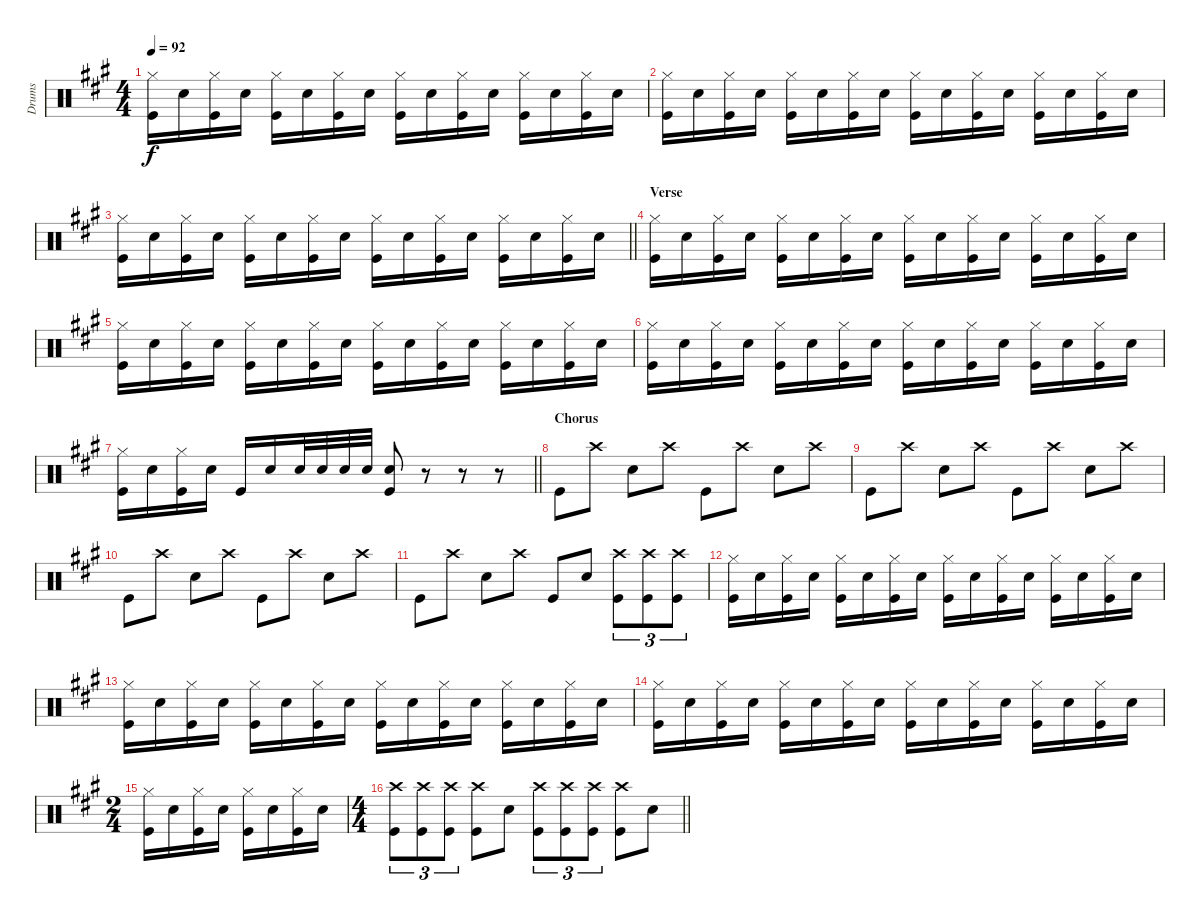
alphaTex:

\track ("Drums" "Drums") {instrument percussion}
\staff {score}
\articulation defaults
\ts (4 4)
\tempo 92
\clef neutral
\ks f#minor
("Hi-Hat (closed)" "Kick (hit)").16{dy f} "Snare (hit) 2".16 ("Hi-Hat (closed)" "Kick (hit)").16 "Snare (hit) 2".16 ("Hi-Hat (closed)" "Kick (hit)").16 "Snare (hit) 2".16 ("Hi-Hat (closed)" "Kick (hit)").16 "Snare (hit) 2".16 ("Hi-Hat (closed)" "Kick (hit)").16 "Snare (hit) 2".16 ("Hi-Hat (closed)" "Kick (hit)").16 "Snare (hit) 2".16 ("Hi-Hat (closed)" "Kick (hit)").16 "Snare (hit) 2".16 ("Hi-Hat (closed)" "Kick (hit)").16 "Snare (hit) 2".16 |
("Hi-Hat (closed)" "Kick (hit)").16 "Snare (hit) 2".16 ("Hi-Hat (closed)" "Kick (hit)").16 "Snare (hit) 2".16 ("Hi-Hat (closed)" "Kick (hit)").16 "Snare (hit) 2".16 ("Hi-Hat (closed)" "Kick (hit)").16 "Snare (hit) 2".16 ("Hi-Hat (closed)" "Kick (hit)").16 "Snare (hit) 2".16 ("Hi-Hat (closed)" "Kick (hit)").16 "Snare (hit) 2".16 ("Hi-Hat (closed)" "Kick (hit)").16 "Snare (hit) 2".16 ("Hi-Hat (closed)" "Kick (hit)").16 "Snare (hit) 2".16 |
\barLineRight lightlight
("Hi-Hat (closed)" "Kick (hit)").16 "Snare (hit) 2".16 ("Hi-Hat (closed)" "Kick (hit)").16 "Snare (hit) 2".16 ("Hi-Hat (closed)" "Kick (hit)").16 "Snare (hit) 2".16 ("Hi-Hat (closed)" "Kick (hit)").16 "Snare (hit) 2".16 ("Hi-Hat (closed)" "Kick (hit)").16 "Snare (hit) 2".16 ("Hi-Hat (closed)" "Kick (hit)").16 "Snare (hit) 2".16 ("Hi-Hat (closed)" "Kick (hit)").16 "Snare (hit) 2".16 ("Hi-Hat (closed)" "Kick (hit)").16 "Snare (hit) 2".16 |
\section ("" "Verse")
("Hi-Hat (closed)" "Kick (hit)").16 "Snare (hit) 2".16 ("Hi-Hat (closed)" "Kick (hit)").16 "Snare (hit) 2".16 ("Hi-Hat (closed)" "Kick (hit)").16 "Snare (hit) 2".16 ("Hi-Hat (closed)" "Kick (hit)").16 "Snare (hit) 2".16 ("Hi-Hat (closed)" "Kick (hit)").16 "Snare (hit) 2".16 ("Hi-Hat (closed)" "Kick (hit)").16 "Snare (hit) 2".16 ("Hi-Hat (closed)" "Kick (hit)").16 "Snare (hit) 2".16 ("Hi-Hat (closed)" "Kick (hit)").16 "Snare (hit) 2".16 |
("Hi-Hat (closed)" "Kick (hit)").16 "Snare (hit) 2".16 ("Hi-Hat (closed)" "Kick (hit)").16 "Snare (hit) 2".16 ("Hi-Hat (closed)" "Kick (hit)").16 "Snare (hit) 2".16 ("Hi-Hat (closed)" "Kick (hit)").16 "Snare (hit) 2".16 ("Hi-Hat (closed)" "Kick (hit)").16 "Snare (hit) 2".16 ("Hi-Hat (closed)" "Kick (hit)").16 "Snare (hit) 2".16 ("Hi-Hat (closed)" "Kick (hit)").16 "Snare (hit) 2".16 ("Hi-Hat (closed)" "Kick (hit)").16 "Snare (hit) 2".16 |
("Hi-Hat (closed)" "Kick (hit)").16 "Snare (hit) 2".16 ("Hi-Hat (closed)" "Kick (hit)").16 "Snare (hit) 2".16 ("Hi-Hat (closed)" "Kick (hit)").16 "Snare (hit) 2".16 ("Hi-Hat (closed)" "Kick (hit)").16 "Snare (hit) 2".16 ("Hi-Hat (closed)" "Kick (hit)").16 "Snare (hit) 2".16 ("Hi-Hat (closed)" "Kick (hit)").16 "Snare (hit) 2".16 ("Hi-Hat (closed)" "Kick (hit)").16 "Snare (hit) 2".16 ("Hi-Hat (closed)" "Kick (hit)").16 "Snare (hit) 2".16 |
\barLineRight lightlight
("Hi-Hat (closed)" "Kick (hit)").16 "Snare (hit) 2".16 ("Hi-Hat (closed)" "Kick (hit)").16 "Snare (hit) 2".16 "Kick (hit)".16 "Snare (hit) 2".16 "Snare (hit) 2".32 "Snare (hit) 2".32 "Snare (hit) 2".32 "Snare (hit) 2".32 ("Snare (hit) 2" "Kick (hit)").8 r.8 r.8 r.8 |
\section ("" "Chorus")
"Kick (hit)".8 "Crash high (hit)".8 "Snare (hit) 2".8 "Crash high (hit)".8 "Kick (hit)".8 "Crash high (hit)".8 "Snare (hit) 2".8 "Crash high (hit)".8 |
"Kick (hit)".8 "Crash high (hit)".8 "Snare (hit) 2".8 "Crash high (hit)".8 "Kick (hit)".8 "Crash high (hit)".8 "Snare (hit) 2".8 "Crash high (hit)".8 |
"Kick (hit)".8 "Crash high (hit)".8 "Snare (hit) 2".8 "Crash high (hit)".8 "Kick (hit)".8 "Crash high (hit)".8 "Snare (hit) 2".8 "Crash high (hit)".8 |
"Kick (hit)".8 "Crash high (hit)".8 "Snare (hit) 2".8 "Crash high (hit)".8 "Kick (hit)".8 "Snare (hit) 2".8 ("Crash high (hit)" "Kick (hit)").8{tu (3 2)} ("Crash high (hit)" "Kick (hit)").8{tu (3 2)} ("Crash high (hit)" "Kick (hit)").8{tu (3 2)} |
("Hi-Hat (closed)" "Kick (hit)").16 "Snare (hit) 2".16 ("Hi-Hat (closed)" "Kick (hit)").16 "Snare (hit) 2".16 ("Hi-Hat (closed)" "Kick (hit)").16 "Snare (hit) 2".16 ("Hi-Hat (closed)" "Kick (hit)").16 "Snare (hit) 2".16 ("Hi-Hat (closed)" "Kick (hit)").16 "Snare (hit) 2".16 ("Hi-Hat (closed)" "Kick (hit)").16 "Snare (hit) 2".16 ("Hi-Hat (closed)" "Kick (hit)").16 "Snare (hit) 2".16 ("Hi-Hat (closed)" "Kick (hit)").16 "Snare (hit) 2".16 |
("Hi-Hat (closed)" "Kick (hit)").16 "Snare (hit) 2".16 ("Hi-Hat (closed)" "Kick (hit)").16 "Snare (hit) 2".16 ("Hi-Hat (closed)" "Kick (hit)").16 "Snare (hit) 2".16 ("Hi-Hat (closed)" "Kick (hit)").16 "Snare (hit) 2".16 ("Hi-Hat (closed)" "Kick (hit)").16 "Snare (hit) 2".16 ("Hi-Hat (closed)" "Kick (hit)").16 "Snare (hit) 2".16 ("Hi-Hat (closed)" "Kick (hit)").16 "Snare (hit) 2".16 ("Hi-Hat (closed)" "Kick (hit)").16 "Snare (hit) 2".16 |
("Hi-Hat (closed)" "Kick (hit)").16 "Snare (hit) 2".16 ("Hi-Hat (closed)" "Kick (hit)").16 "Snare (hit) 2".16 ("Hi-Hat (closed)" "Kick (hit)").16 "Snare (hit) 2".16 ("Hi-Hat (closed)" "Kick (hit)").16 "Snare (hit) 2".16 ("Hi-Hat (closed)" "Kick (hit)").16 "Snare (hit) 2".16 ("Hi-Hat (closed)" "Kick (hit)").16 "Snare (hit) 2".16 ("Hi-Hat (closed)" "Kick (hit)").16 "Snare (hit) 2".16 ("Hi-Hat (closed)" "Kick (hit)").16 "Snare (hit) 2".16 |
\ts (2 4)
("Hi-Hat (closed)" "Kick (hit)").16 "Snare (hit) 2".16 ("Hi-Hat (closed)" "Kick (hit)").16 "Snare (hit) 2".16 ("Hi-Hat (closed)" "Kick (hit)").16 "Snare (hit) 2".16 ("Hi-Hat (closed)" "Kick (hit)").16 "Snare (hit) 2".16 |
\ts (4 4)
\barLineRight lightlight
("Crash high (hit)" "Kick (hit)").8{tu (3 2)} ("Crash high (hit)" "Kick (hit)").8{tu (3 2)} ("Crash high (hit)" "Kick (hit)").8{tu (3 2)} ("Crash high (hit)" "Kick (hit)").8 "Snare (hit) 2".8 ("Crash high (hit)" "Kick (hit)").8{tu (3 2)} ("Crash high (hit)" "Kick (hit)").8{tu (3 2)} ("Crash high (hit)" "Kick (hit)").8{tu (3 2)} ("Crash high (hit)" "Kick (hit)").8 "Snare (hit) 2".8
